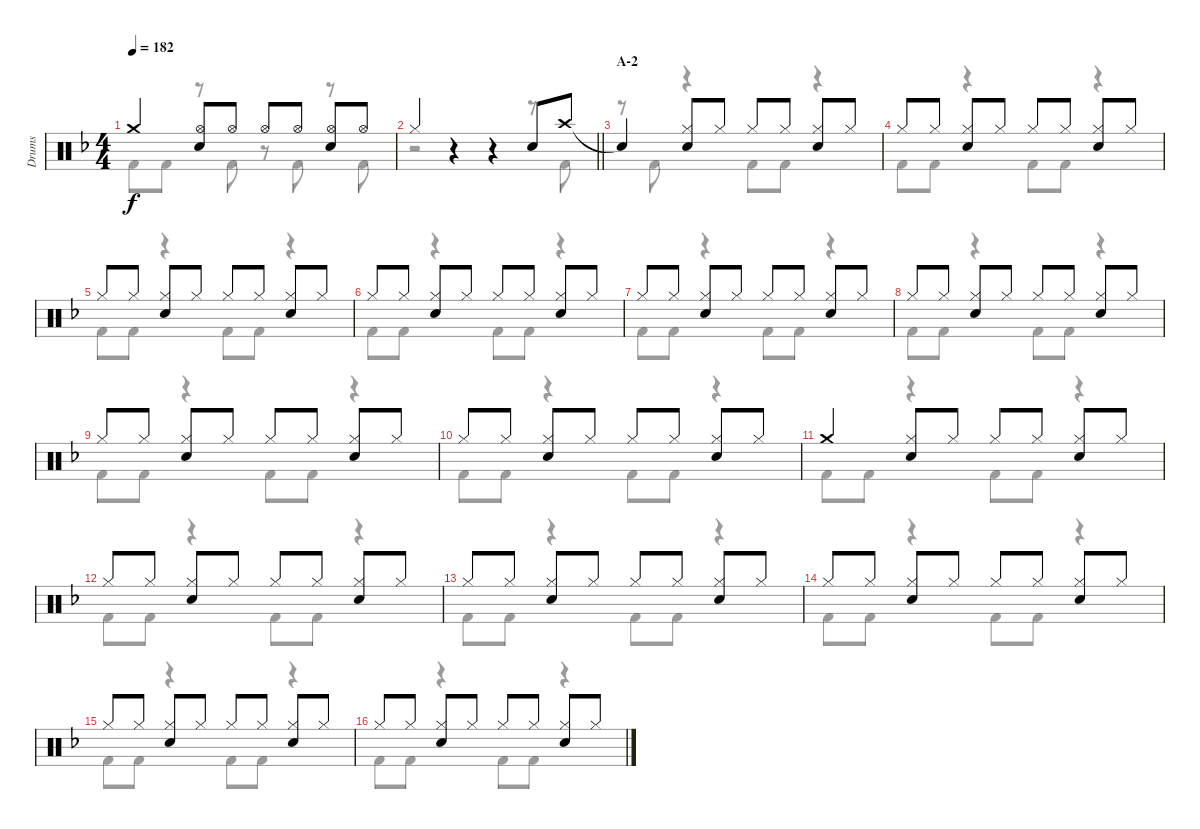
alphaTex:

\track ("Drums" "Drums") {instrument percussion}
\staff {score}
\articulation defaults
\voice
\ts (4 4)
\tempo 182
\clef neutral
\ks f "Crash medium (hit)".4{dy f}
("Hi-Hat (open)" "Snare (hit) 2").8 "Hi-Hat (open)".8 "Hi-Hat (open)".8 "Hi-Hat (open)".8 ("Hi-Hat (open)" "Snare (hit) 2").8 "Hi-Hat (open)".8 |
\barLineRight lightlight "Hi-Hat (closed)".4
r.4 r.4 "Snare (hit) 2".8 "Crash high (hit)".8 |
\section ("" "A-2")
"Snare (hit)"{t}.4 ("Hi-Hat (closed)" "Snare (hit) 2").8 "Hi-Hat (closed)".8 "Hi-Hat (closed)".8 "Hi-Hat (closed)".8 ("Hi-Hat (closed)" "Snare (hit) 2").8 "Hi-Hat (closed)".8 |
"Hi-Hat (closed)".8 "Hi-Hat (closed)".8 ("Hi-Hat (closed)" "Snare (hit) 2").8 "Hi-Hat (closed)".8 "Hi-Hat (closed)".8 "Hi-Hat (closed)".8 ("Hi-Hat (closed)" "Snare (hit) 2").8 "Hi-Hat (closed)".8 |
"Hi-Hat (closed)".8 "Hi-Hat (closed)".8 ("Hi-Hat (closed)" "Snare (hit) 2").8 "Hi-Hat (closed)".8 "Hi-Hat (closed)".8 "Hi-Hat (closed)".8 ("Hi-Hat (closed)" "Snare (hit) 2").8 "Hi-Hat (closed)".8 |
"Hi-Hat (closed)".8 "Hi-Hat (closed)".8 ("Hi-Hat (closed)" "Snare (hit) 2").8 "Hi-Hat (closed)".8 "Hi-Hat (closed)".8 "Hi-Hat (closed)".8 ("Hi-Hat (closed)" "Snare (hit) 2").8 "Hi-Hat (closed)".8 |
"Hi-Hat (closed)".8 "Hi-Hat (closed)".8 ("Hi-Hat (closed)" "Snare (hit) 2").8 "Hi-Hat (closed)".8 "Hi-Hat (closed)".8 "Hi-Hat (closed)".8 ("Hi-Hat (closed)" "Snare (hit) 2").8 "Hi-Hat (closed)".8 |
"Hi-Hat (closed)".8 "Hi-Hat (closed)".8 ("Hi-Hat (closed)" "Snare (hit) 2").8 "Hi-Hat (closed)".8 "Hi-Hat (closed)".8 "Hi-Hat (closed)".8 ("Hi-Hat (closed)" "Snare (hit) 2").8 "Hi-Hat (closed)".8 |
"Hi-Hat (closed)".8 "Hi-Hat (closed)".8 ("Hi-Hat (closed)" "Snare (hit) 2").8 "Hi-Hat (closed)".8 "Hi-Hat (closed)".8 "Hi-Hat (closed)".8 ("Hi-Hat (closed)" "Snare (hit) 2").8 "Hi-Hat (closed)".8 |
"Hi-Hat (closed)".8 "Hi-Hat (closed)".8 ("Hi-Hat (closed)" "Snare (hit) 2").8 "Hi-Hat (closed)".8 "Hi-Hat (closed)".8 "Hi-Hat (closed)".8 ("Hi-Hat (closed)" "Snare (hit) 2").8 "Hi-Hat (closed)".8 |
"Crash medium (hit)".4 ("Hi-Hat (closed)" "Snare (hit) 2").8 "Hi-Hat (closed)".8 "Hi-Hat (closed)".8 "Hi-Hat (closed)".8 ("Hi-Hat (closed)" "Snare (hit) 2").8 "Hi-Hat (closed)".8 |
"Hi-Hat (closed)".8 "Hi-Hat (closed)".8 ("Hi-Hat (closed)" "Snare (hit) 2").8 "Hi-Hat (closed)".8 "Hi-Hat (closed)".8 "Hi-Hat (closed)".8 ("Hi-Hat (closed)" "Snare (hit) 2").8 "Hi-Hat (closed)".8 |
"Hi-Hat (closed)".8 "Hi-Hat (closed)".8 ("Hi-Hat (closed)" "Snare (hit) 2").8 "Hi-Hat (closed)".8 "Hi-Hat (closed)".8 "Hi-Hat (closed)".8 ("Hi-Hat (closed)" "Snare (hit) 2").8 "Hi-Hat (closed)".8 |
"Hi-Hat (closed)".8 "Hi-Hat (closed)".8 ("Hi-Hat (closed)" "Snare (hit) 2").8 "Hi-Hat (closed)".8 "Hi-Hat (closed)".8 "Hi-Hat (closed)".8 ("Hi-Hat (closed)" "Snare (hit) 2").8 "Hi-Hat (closed)".8 |
"Hi-Hat (closed)".8 "Hi-Hat (closed)".8 ("Hi-Hat (closed)" "Snare (hit) 2").8 "Hi-Hat (closed)".8 "Hi-Hat (closed)".8 "Hi-Hat (closed)".8 ("Hi-Hat (closed)" "Snare (hit) 2").8 "Hi-Hat (closed)".8 |
"Hi-Hat (closed)".8 "Hi-Hat (closed)".8 ("Hi-Hat (closed)" "Snare (hit) 2").8 "Hi-Hat (closed)".8 "Hi-Hat (closed)".8 "Hi-Hat (closed)".8 ("Hi-Hat (closed)" "Snare (hit) 2").8 "Hi-Hat (closed)".8
\voice
\clef neutral
\ottava regular
\simile none
\ks f "Kick (hit) 2".8{dy f} "Kick (hit) 2".8
r.8 "Kick (hit) 2".8 r.8 "Kick (hit) 2".8 r.8 "Kick (hit) 2".8 |
\barLineRight lightlight
r.2 r.4 r.8 "Kick (hit) 2".8 |
r.8 "Kick (hit) 2".8 r.4 "Kick (hit) 2".8 "Kick (hit) 2".8 r.4 |
"Kick (hit) 2".8 "Kick (hit) 2".8 r.4 "Kick (hit) 2".8 "Kick (hit) 2".8 r.4 |
"Kick (hit) 2".8 "Kick (hit) 2".8 r.4 "Kick (hit) 2".8 "Kick (hit) 2".8 r.4 |
"Kick (hit) 2".8 "Kick (hit) 2".8 r.4 "Kick (hit) 2".8 "Kick (hit) 2".8 r.4 |
"Kick (hit) 2".8 "Kick (hit) 2".8 r.4 "Kick (hit) 2".8 "Kick (hit) 2".8 r.4 |
"Kick (hit) 2".8 "Kick (hit) 2".8 r.4 "Kick (hit) 2".8 "Kick (hit) 2".8 r.4 |
"Kick (hit) 2".8 "Kick (hit) 2".8 r.4 "Kick (hit) 2".8 "Kick (hit) 2".8 r.4 |
"Kick (hit) 2".8 "Kick (hit) 2".8 r.4 "Kick (hit) 2".8 "Kick (hit) 2".8 r.4 |
"Kick (hit) 2".8 "Kick (hit) 2".8 r.4 "Kick (hit) 2".8 "Kick (hit) 2".8 r.4 |
"Kick (hit) 2".8 "Kick (hit) 2".8 r.4 "Kick (hit) 2".8 "Kick (hit) 2".8 r.4 |
"Kick (hit) 2".8 "Kick (hit) 2".8 r.4 "Kick (hit) 2".8 "Kick (hit) 2".8 r.4 |
"Kick (hit) 2".8 "Kick (hit) 2".8 r.4 "Kick (hit) 2".8 "Kick (hit) 2".8 r.4 |
"Kick (hit) 2".8 "Kick (hit) 2".8 r.4 "Kick (hit) 2".8 "Kick (hit) 2".8 r.4 |
"Kick (hit) 2".8 "Kick (hit) 2".8 r.4 "Kick (hit) 2".8 "Kick (hit) 2".8 r.4
